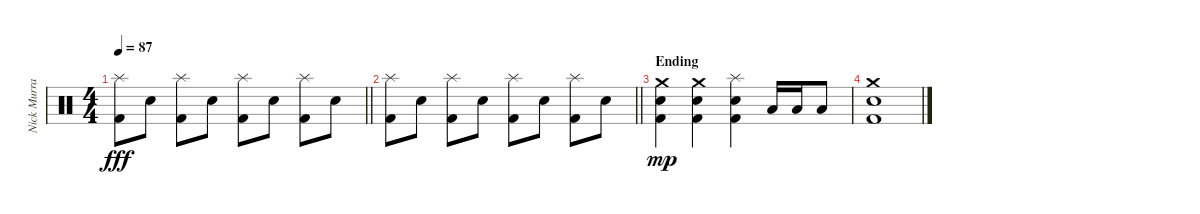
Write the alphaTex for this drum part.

\track ("Nick Murray" "Nick Murra") {instrument percussion}
\staff {score}
\articulation defaults
\ts (4 4)
\tempo 87
\clef neutral
\barLineRight lightlight
\ks c
("Splash (hit)" "Kick (hit) 2").8{dy fff} "Electric Snare (hit)".8 ("Splash (hit)" "Kick (hit) 2").8 "Electric Snare (hit)".8 ("Splash (hit)" "Kick (hit) 2").8 "Electric Snare (hit)".8 ("Splash (hit)" "Kick (hit) 2").8 "Electric Snare (hit)".8 |
\barLineRight lightlight
("Splash (hit)" "Kick (hit) 2").8 "Electric Snare (hit)".8 ("Splash (hit)" "Kick (hit) 2").8 "Electric Snare (hit)".8 ("Splash (hit)" "Kick (hit) 2").8 "Electric Snare (hit)".8 ("Splash (hit)" "Kick (hit) 2").8 "Electric Snare (hit)".8 |
\section ("" "Ending")
("Crash medium (hit)" "Electric Snare (hit)" "Kick (hit) 2").4{dy mp} ("Crash medium (hit)" "Electric Snare (hit)" "Kick (hit) 2").4 ("Splash (hit)" "Electric Snare (hit)" "Kick (hit) 2").4 "Low Floor Tom (hit)".16 "Low Floor Tom (hit)".16 "Low Floor Tom (hit)".8 |
("Crash medium (hit)" "Electric Snare (hit)" "Kick (hit) 2").1
